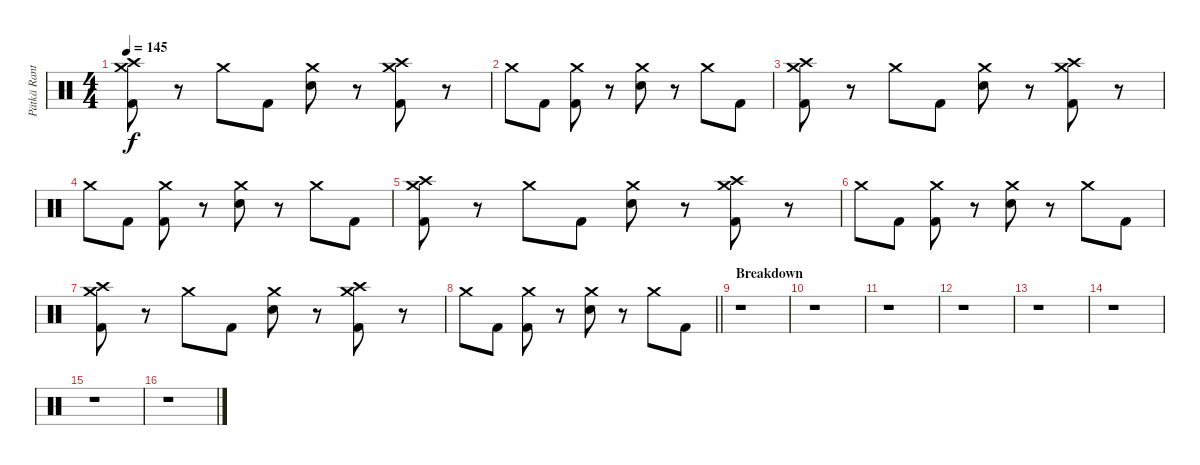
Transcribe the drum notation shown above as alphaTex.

\track ("Pätkä Rantala (Drums)" "Pätkä Rant") {instrument percussion}
\staff {score}
\articulation defaults
\ts (4 4)
\tempo 145
\clef neutral
\ks c
("Crash high (hit)" "Crash medium (hit)" "Kick (hit) 2").8{dy f} r.8 "Crash medium (hit)".8 "Kick (hit) 2".8 ("Crash medium (hit)" "Snare (hit) 2").8 r.8 ("Crash high (hit)" "Crash medium (hit)" "Kick (hit) 2").8 r.8 |
"Crash medium (hit)".8 "Kick (hit) 2".8 ("Crash medium (hit)" "Kick (hit) 2").8 r.8 ("Crash medium (hit)" "Snare (hit) 2").8 r.8 "Crash medium (hit)".8 "Kick (hit) 2".8 |
("Crash high (hit)" "Crash medium (hit)" "Kick (hit) 2").8 r.8 "Crash medium (hit)".8 "Kick (hit) 2".8 ("Crash medium (hit)" "Snare (hit) 2").8 r.8 ("Crash high (hit)" "Crash medium (hit)" "Kick (hit) 2").8 r.8 |
"Crash medium (hit)".8 "Kick (hit) 2".8 ("Crash medium (hit)" "Kick (hit) 2").8 r.8 ("Crash medium (hit)" "Snare (hit) 2").8 r.8 "Crash medium (hit)".8 "Kick (hit) 2".8 |
("Crash high (hit)" "Crash medium (hit)" "Kick (hit) 2").8 r.8 "Crash medium (hit)".8 "Kick (hit) 2".8 ("Crash medium (hit)" "Snare (hit) 2").8 r.8 ("Crash high (hit)" "Crash medium (hit)" "Kick (hit) 2").8 r.8 |
"Crash medium (hit)".8 "Kick (hit) 2".8 ("Crash medium (hit)" "Kick (hit) 2").8 r.8 ("Crash medium (hit)" "Snare (hit) 2").8 r.8 "Crash medium (hit)".8 "Kick (hit) 2".8 |
("Crash high (hit)" "Crash medium (hit)" "Kick (hit) 2").8 r.8 "Crash medium (hit)".8 "Kick (hit) 2".8 ("Crash medium (hit)" "Snare (hit) 2").8 r.8 ("Crash high (hit)" "Crash medium (hit)" "Kick (hit) 2").8 r.8 |
\barLineRight lightlight "Crash medium (hit)".8 "Kick (hit) 2".8
("Crash medium (hit)" "Kick (hit) 2").8 r.8 ("Crash medium (hit)" "Snare (hit) 2").8 r.8 "Crash medium (hit)".8 "Kick (hit) 2".8 |
\section ("" "Breakdown")
r.1 |
r.1 |
r.1 |
r.1 |
r.1 |
r.1 |
r.1 |
r.1
